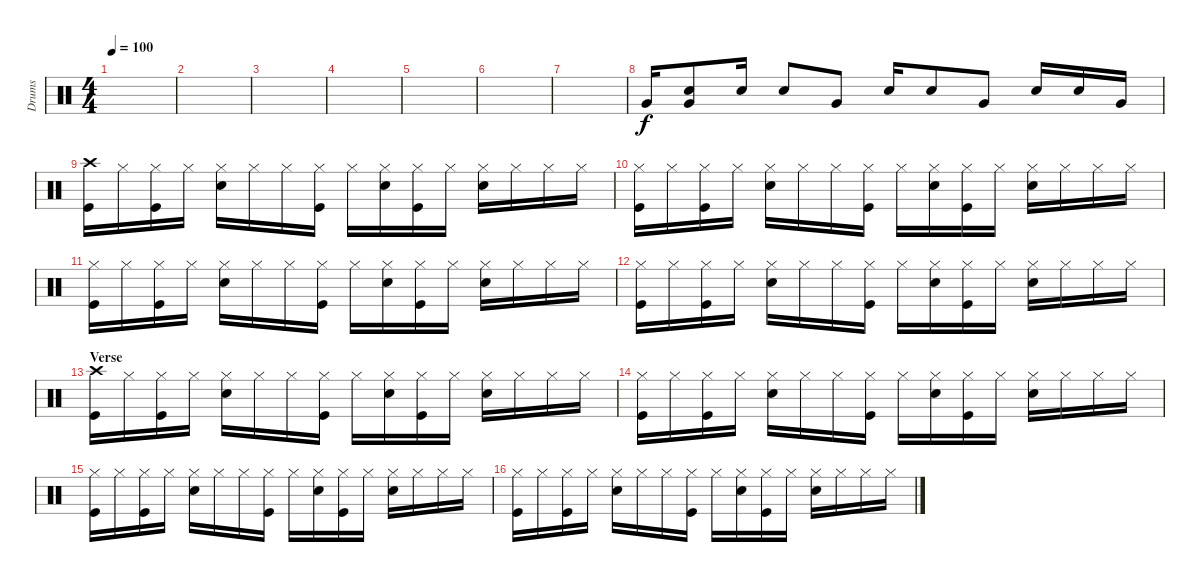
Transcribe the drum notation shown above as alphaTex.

\track ("Drums" "Drums") {instrument percussion}
\staff {score}
\articulation defaults
\ts (4 4)
\tempo 100
\clef neutral
\ks c
|
|
|
|
|
|
|
"Very Low Tom (hit)".16 ("Very Low Tom (hit)" "Electric Snare (hit)").8 "Electric Snare (hit)".16 "Electric Snare (hit)".8 "Very Low Tom (hit)".8 "Electric Snare (hit)".16 "Electric Snare (hit)".8 "Very Low Tom (hit)".8 "Electric Snare (hit)".16 "Electric Snare (hit)".16 "Very Low Tom (hit)".16 |
("Crash high (hit)" "Kick (hit)").16 "Hi-Hat (closed)"{x}.16 ("Hi-Hat (closed)" "Kick (hit)").16 "Hi-Hat (closed)"{x}.16 ("Hi-Hat (closed)" "Electric Snare (hit)").16 "Hi-Hat (closed)"{x}.16 "Hi-Hat (closed)".16 ("Hi-Hat (closed)"{x} "Kick (hit)").16 "Hi-Hat (closed)".16 ("Hi-Hat (closed)"{x} "Electric Snare (hit)").16 ("Hi-Hat (closed)" "Kick (hit)").16 "Hi-Hat (closed)"{x}.16 ("Hi-Hat (closed)" "Electric Snare (hit)").16 "Hi-Hat (closed)"{x}.16 "Hi-Hat (closed)".16 "Hi-Hat (closed)"{x}.16 |
("Hi-Hat (closed)" "Kick (hit)").16 "Hi-Hat (closed)"{x}.16 ("Hi-Hat (closed)" "Kick (hit)").16 "Hi-Hat (closed)"{x}.16 ("Hi-Hat (closed)" "Electric Snare (hit)").16 "Hi-Hat (closed)"{x}.16 "Hi-Hat (closed)".16 ("Hi-Hat (closed)"{x} "Kick (hit)").16 "Hi-Hat (closed)".16 ("Hi-Hat (closed)"{x} "Electric Snare (hit)").16 ("Hi-Hat (closed)" "Kick (hit)").16 "Hi-Hat (closed)"{x}.16 ("Hi-Hat (closed)" "Electric Snare (hit)").16 "Hi-Hat (closed)"{x}.16 "Hi-Hat (closed)".16 "Hi-Hat (closed)"{x}.16 |
("Hi-Hat (closed)" "Kick (hit)").16 "Hi-Hat (closed)"{x}.16 ("Hi-Hat (closed)" "Kick (hit)").16 "Hi-Hat (closed)"{x}.16 ("Hi-Hat (closed)" "Electric Snare (hit)").16 "Hi-Hat (closed)"{x}.16 "Hi-Hat (closed)".16 ("Hi-Hat (closed)"{x} "Kick (hit)").16 "Hi-Hat (closed)".16 ("Hi-Hat (closed)"{x} "Electric Snare (hit)").16 ("Hi-Hat (closed)" "Kick (hit)").16 "Hi-Hat (closed)"{x}.16 ("Hi-Hat (closed)" "Electric Snare (hit)").16 "Hi-Hat (closed)"{x}.16 "Hi-Hat (closed)".16 "Hi-Hat (closed)"{x}.16 |
("Hi-Hat (closed)" "Kick (hit)").16 "Hi-Hat (closed)"{x}.16 ("Hi-Hat (closed)" "Kick (hit)").16 "Hi-Hat (closed)"{x}.16 ("Hi-Hat (closed)" "Electric Snare (hit)").16 "Hi-Hat (closed)"{x}.16 "Hi-Hat (closed)".16 ("Hi-Hat (closed)"{x} "Kick (hit)").16 "Hi-Hat (closed)".16 ("Hi-Hat (closed)"{x} "Electric Snare (hit)").16 ("Hi-Hat (closed)" "Kick (hit)").16 "Hi-Hat (closed)"{x}.16 ("Hi-Hat (closed)" "Electric Snare (hit)").16 "Hi-Hat (closed)"{x}.16 "Hi-Hat (closed)".16 "Hi-Hat (closed)"{x}.16 |
\section ("" "Verse")
("Crash high (hit)" "Kick (hit)").16 "Hi-Hat (closed)"{x}.16 ("Hi-Hat (closed)" "Kick (hit)").16 "Hi-Hat (closed)"{x}.16 ("Hi-Hat (closed)" "Electric Snare (hit)").16 "Hi-Hat (closed)"{x}.16 "Hi-Hat (closed)".16 ("Hi-Hat (closed)"{x} "Kick (hit)").16 "Hi-Hat (closed)".16 ("Hi-Hat (closed)"{x} "Electric Snare (hit)").16 ("Hi-Hat (closed)" "Kick (hit)").16 "Hi-Hat (closed)"{x}.16 ("Hi-Hat (closed)" "Electric Snare (hit)").16 "Hi-Hat (closed)"{x}.16 "Hi-Hat (closed)".16 "Hi-Hat (closed)"{x}.16 |
("Hi-Hat (closed)" "Kick (hit)").16 "Hi-Hat (closed)"{x}.16 ("Hi-Hat (closed)" "Kick (hit)").16 "Hi-Hat (closed)"{x}.16 ("Hi-Hat (closed)" "Electric Snare (hit)").16 "Hi-Hat (closed)"{x}.16 "Hi-Hat (closed)".16 ("Hi-Hat (closed)"{x} "Kick (hit)").16 "Hi-Hat (closed)".16 ("Hi-Hat (closed)"{x} "Electric Snare (hit)").16 ("Hi-Hat (closed)" "Kick (hit)").16 "Hi-Hat (closed)"{x}.16 ("Hi-Hat (closed)" "Electric Snare (hit)").16 "Hi-Hat (closed)"{x}.16 "Hi-Hat (closed)".16 "Hi-Hat (closed)"{x}.16 |
("Hi-Hat (closed)" "Kick (hit)").16 "Hi-Hat (closed)"{x}.16 ("Hi-Hat (closed)" "Kick (hit)").16 "Hi-Hat (closed)"{x}.16 ("Hi-Hat (closed)" "Electric Snare (hit)").16 "Hi-Hat (closed)"{x}.16 "Hi-Hat (closed)".16 ("Hi-Hat (closed)"{x} "Kick (hit)").16 "Hi-Hat (closed)".16 ("Hi-Hat (closed)"{x} "Electric Snare (hit)").16 ("Hi-Hat (closed)" "Kick (hit)").16 "Hi-Hat (closed)"{x}.16 ("Hi-Hat (closed)" "Electric Snare (hit)").16 "Hi-Hat (closed)"{x}.16 "Hi-Hat (closed)".16 "Hi-Hat (closed)"{x}.16 |
("Hi-Hat (closed)" "Kick (hit)").16 "Hi-Hat (closed)"{x}.16 ("Hi-Hat (closed)" "Kick (hit)").16 "Hi-Hat (closed)"{x}.16 ("Hi-Hat (closed)" "Electric Snare (hit)").16 "Hi-Hat (closed)"{x}.16 "Hi-Hat (closed)".16 ("Hi-Hat (closed)"{x} "Kick (hit)").16 "Hi-Hat (closed)".16 ("Hi-Hat (closed)"{x} "Electric Snare (hit)").16 ("Hi-Hat (closed)" "Kick (hit)").16 "Hi-Hat (closed)"{x}.16 ("Hi-Hat (closed)" "Electric Snare (hit)").16 "Hi-Hat (closed)"{x}.16 "Hi-Hat (closed)".16 "Hi-Hat (closed)"{x}.16
